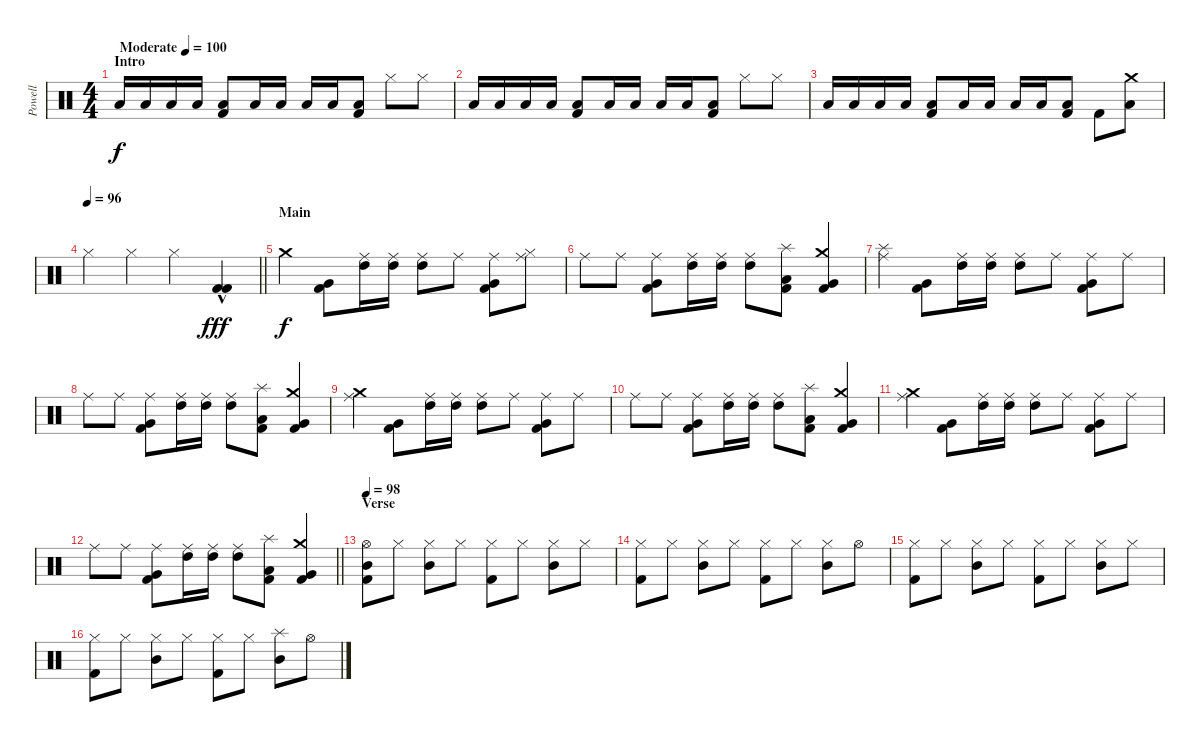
\track ("Powell" "Powell") {instrument percussion}
\staff {score}
\articulation defaults
\ts (4 4)
\section ("" "Intro")
\tempo (100 "Moderate")
\clef neutral
\ks c "Low Tom (hit)".16{dy f} "Low Tom (hit)".16 "Low Tom (hit)".16 "Low Tom (hit)".16
("Low Tom (hit)" "Kick (hit) 2").8 "Low Tom (hit)".16 "Low Tom (hit)".16 "Low Tom (hit)".16 "Low Tom (hit)".16 ("Low Tom (hit)" "Kick (hit) 2").8 "Hi-Hat (closed)".8 "Hi-Hat (closed)".8 |
"Low Tom (hit)".16 "Low Tom (hit)".16 "Low Tom (hit)".16 "Low Tom (hit)".16 ("Low Tom (hit)" "Kick (hit) 2").8 "Low Tom (hit)".16 "Low Tom (hit)".16 "Low Tom (hit)".16 "Low Tom (hit)".16 ("Low Tom (hit)" "Kick (hit) 2").8 "Hi-Hat (closed)".8 "Hi-Hat (closed)".8 |
"Low Tom (hit)".16 "Low Tom (hit)".16 "Low Tom (hit)".16 "Low Tom (hit)".16 ("Low Tom (hit)" "Kick (hit) 2").8 "Low Tom (hit)".16 "Low Tom (hit)".16 "Low Tom (hit)".16 "Low Tom (hit)".16 ("Low Tom (hit)" "Kick (hit) 2").8 "Kick (hit) 2".8 ("Crash medium (hit)" "Low Tom (hit)").8 |
\tempo 96
\barLineRight lightlight "Hi-Hat (closed)".4 "Hi-Hat (closed)".4 "Hi-Hat (closed)".4
("Kick (hit) 2"{hac} "Kick (hit) 2"{hac}).4{dy fff} |
\section ("" "Main")
"Crash medium (hit)".4{dy f} ("Very Low Tom (hit)" "Kick (hit) 2").8 ("Ride (middle)" "High Tom (hit)").16 ("Ride (middle)" "High Tom (hit)").16 ("Ride (middle)" "High Tom (hit)").8 "Ride (middle)".8 ("Ride (middle)" "Very Low Tom (hit)" "Kick (hit) 2").8 ("Ride (middle)" "Hi-Hat (closed)").8 |
"Ride (middle)".8 "Ride (middle)".8 ("Ride (middle)" "Very Low Tom (hit)" "Kick (hit) 2").8 ("Ride (middle)" "High Tom (hit)").16 ("Ride (middle)" "High Tom (hit)").16 ("Ride (middle)" "High Tom (hit)").8 ("Splash (hit)" "Low Tom (hit)" "Kick (hit) 2").8 ("Crash medium (hit)" "Very Low Tom (hit)" "Kick (hit) 2").4 |
("Splash (hit)" "Ride (middle)").4 ("Very Low Tom (hit)" "Kick (hit) 2").8 ("Ride (middle)" "High Tom (hit)").16 ("Ride (middle)" "High Tom (hit)").16 ("Ride (middle)" "High Tom (hit)").8 "Ride (middle)".8 ("Ride (middle)" "Very Low Tom (hit)" "Kick (hit) 2").8 "Ride (middle)".8 |
"Ride (middle)".8 "Ride (middle)".8 ("Ride (middle)" "Very Low Tom (hit)" "Kick (hit) 2").8 ("Ride (middle)" "High Tom (hit)").16 ("Ride (middle)" "High Tom (hit)").16 ("Ride (middle)" "High Tom (hit)").8 ("Splash (hit)" "Low Tom (hit)" "Kick (hit) 2").8 ("Crash medium (hit)" "Very Low Tom (hit)" "Kick (hit) 2").4 |
("Crash medium (hit)" "Ride (middle)").4 ("Very Low Tom (hit)" "Kick (hit) 2").8 ("Ride (middle)" "High Tom (hit)").16 ("Ride (middle)" "High Tom (hit)").16 ("Ride (middle)" "High Tom (hit)").8 "Ride (middle)".8 ("Ride (middle)" "Very Low Tom (hit)" "Kick (hit) 2").8 "Ride (middle)".8 |
"Ride (middle)".8 "Ride (middle)".8 ("Ride (middle)" "Very Low Tom (hit)" "Kick (hit) 2").8 ("Ride (middle)" "High Tom (hit)").16 ("Ride (middle)" "High Tom (hit)").16 ("Ride (middle)" "High Tom (hit)").8 ("Splash (hit)" "Low Tom (hit)" "Kick (hit) 2").8 ("Crash medium (hit)" "Very Low Tom (hit)" "Kick (hit) 2").4 |
("Crash medium (hit)" "Ride (middle)").4 ("Very Low Tom (hit)" "Kick (hit) 2").8 ("Ride (middle)" "High Tom (hit)").16 ("Ride (middle)" "High Tom (hit)").16 ("Ride (middle)" "High Tom (hit)").8 "Ride (middle)".8 ("Ride (middle)" "Very Low Tom (hit)" "Kick (hit) 2").8 "Ride (middle)".8 |
\barLineRight lightlight "Ride (middle)".8 "Ride (middle)".8
("Ride (middle)" "Very Low Tom (hit)" "Kick (hit) 2").8 ("Ride (middle)" "High Tom (hit)").16 ("Ride (middle)" "High Tom (hit)").16 ("Ride (middle)" "High Tom (hit)").8 ("Splash (hit)" "Low Tom (hit)" "Kick (hit) 2").8 ("Crash medium (hit)" "Very Low Tom (hit)" "Kick (hit) 2").4 |
\section ("" "Verse")
\tempo 98
("Hi-Hat (open)" "Mid Tom (hit)" "Kick (hit) 2").8 "Hi-Hat (closed)".8 ("Hi-Hat (closed)" "Mid Tom (hit)").8 "Hi-Hat (closed)".8 ("Hi-Hat (closed)" "Kick (hit) 2").8 "Hi-Hat (closed)".8 ("Hi-Hat (closed)" "Mid Tom (hit)").8 "Hi-Hat (closed)".8 |
("Hi-Hat (closed)" "Kick (hit) 2").8 "Hi-Hat (closed)".8 ("Hi-Hat (closed)" "Mid Tom (hit)").8 "Hi-Hat (closed)".8 ("Hi-Hat (closed)" "Kick (hit) 2").8 "Hi-Hat (closed)".8 ("Hi-Hat (closed)" "Mid Tom (hit)").8 "Hi-Hat (open)".8 |
("Hi-Hat (closed)" "Kick (hit) 2").8 "Hi-Hat (closed)".8 ("Hi-Hat (closed)" "Mid Tom (hit)").8 "Hi-Hat (closed)".8 ("Hi-Hat (closed)" "Kick (hit) 2").8 "Hi-Hat (closed)".8 ("Hi-Hat (closed)" "Mid Tom (hit)").8 "Hi-Hat (closed)".8 |
("Hi-Hat (closed)" "Kick (hit) 2").8 "Hi-Hat (closed)".8 ("Hi-Hat (closed)" "Mid Tom (hit)").8 "Hi-Hat (closed)".8 ("Hi-Hat (closed)" "Kick (hit) 2").8 "Hi-Hat (closed)".8 ("Splash (hit)" "Mid Tom (hit)").8 "Hi-Hat (open)".8
